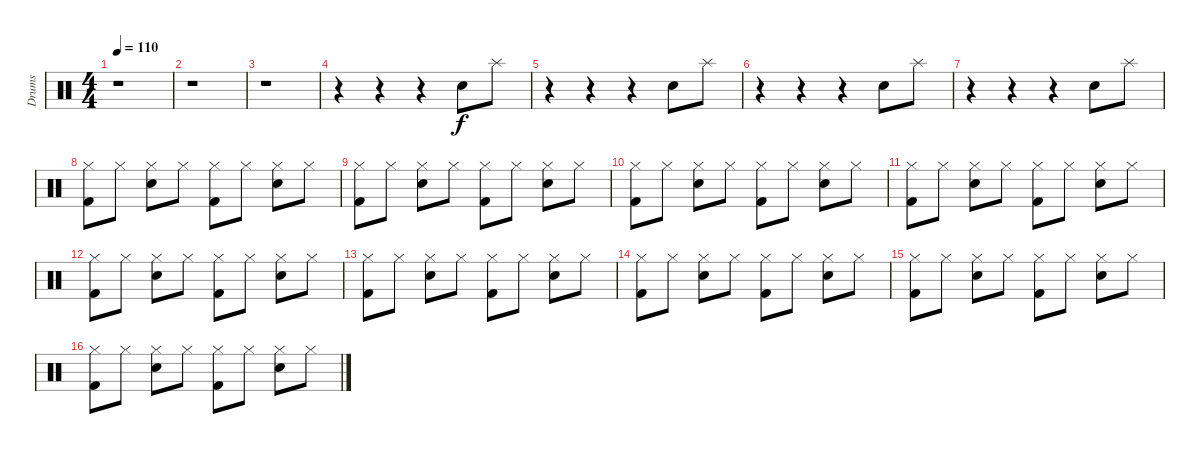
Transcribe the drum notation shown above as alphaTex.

\track ("Drums" "Drums") {instrument percussion}
\staff {score}
\articulation defaults
\ts (4 4)
\tempo 110
\clef neutral
\ks c
r.1{dy f} |
r.1 |
r.1 |
r.4 r.4 r.4 "Snare (hit) 2".8 "Splash (hit)".8 |
r.4 r.4 r.4 "Snare (hit) 2".8 "Splash (hit)".8 |
r.4 r.4 r.4 "Snare (hit) 2".8 "Splash (hit)".8 |
r.4 r.4 r.4 "Snare (hit) 2".8 "Splash (hit)".8 |
("Hi-Hat (closed)" "Kick (hit) 2").8 "Hi-Hat (closed)".8 ("Hi-Hat (closed)" "Snare (hit) 2").8 "Hi-Hat (closed)".8 ("Hi-Hat (closed)" "Kick (hit) 2").8 "Hi-Hat (closed)".8 ("Hi-Hat (closed)" "Snare (hit) 2").8 "Hi-Hat (closed)".8 |
("Hi-Hat (closed)" "Kick (hit) 2").8 "Hi-Hat (closed)".8 ("Hi-Hat (closed)" "Snare (hit) 2").8 "Hi-Hat (closed)".8 ("Hi-Hat (closed)" "Kick (hit) 2").8 "Hi-Hat (closed)".8 ("Hi-Hat (closed)" "Snare (hit) 2").8 "Hi-Hat (closed)".8 |
("Hi-Hat (closed)" "Kick (hit) 2").8 "Hi-Hat (closed)".8 ("Hi-Hat (closed)" "Snare (hit) 2").8 "Hi-Hat (closed)".8 ("Hi-Hat (closed)" "Kick (hit) 2").8 "Hi-Hat (closed)".8 ("Hi-Hat (closed)" "Snare (hit) 2").8 "Hi-Hat (closed)".8 |
("Hi-Hat (closed)" "Kick (hit) 2").8 "Hi-Hat (closed)".8 ("Hi-Hat (closed)" "Snare (hit) 2").8 "Hi-Hat (closed)".8 ("Hi-Hat (closed)" "Kick (hit) 2").8 "Hi-Hat (closed)".8 ("Hi-Hat (closed)" "Snare (hit) 2").8 "Hi-Hat (closed)".8 |
("Hi-Hat (closed)" "Kick (hit) 2").8 "Hi-Hat (closed)".8 ("Hi-Hat (closed)" "Snare (hit) 2").8 "Hi-Hat (closed)".8 ("Hi-Hat (closed)" "Kick (hit) 2").8 "Hi-Hat (closed)".8 ("Hi-Hat (closed)" "Snare (hit) 2").8 "Hi-Hat (closed)".8 |
("Hi-Hat (closed)" "Kick (hit) 2").8 "Hi-Hat (closed)".8 ("Hi-Hat (closed)" "Snare (hit) 2").8 "Hi-Hat (closed)".8 ("Hi-Hat (closed)" "Kick (hit) 2").8 "Hi-Hat (closed)".8 ("Hi-Hat (closed)" "Snare (hit) 2").8 "Hi-Hat (closed)".8 |
("Hi-Hat (closed)" "Kick (hit) 2").8 "Hi-Hat (closed)".8 ("Hi-Hat (closed)" "Snare (hit) 2").8 "Hi-Hat (closed)".8 ("Hi-Hat (closed)" "Kick (hit) 2").8 "Hi-Hat (closed)".8 ("Hi-Hat (closed)" "Snare (hit) 2").8 "Hi-Hat (closed)".8 |
("Hi-Hat (closed)" "Kick (hit) 2").8 "Hi-Hat (closed)".8 ("Hi-Hat (closed)" "Snare (hit) 2").8 "Hi-Hat (closed)".8 ("Hi-Hat (closed)" "Kick (hit) 2").8 "Hi-Hat (closed)".8 ("Hi-Hat (closed)" "Snare (hit) 2").8 "Hi-Hat (closed)".8 |
("Hi-Hat (closed)" "Kick (hit) 2").8 "Hi-Hat (closed)".8 ("Hi-Hat (closed)" "Snare (hit) 2").8 "Hi-Hat (closed)".8 ("Hi-Hat (closed)" "Kick (hit) 2").8 "Hi-Hat (closed)".8 ("Hi-Hat (closed)" "Snare (hit) 2").8 "Hi-Hat (closed)".8
